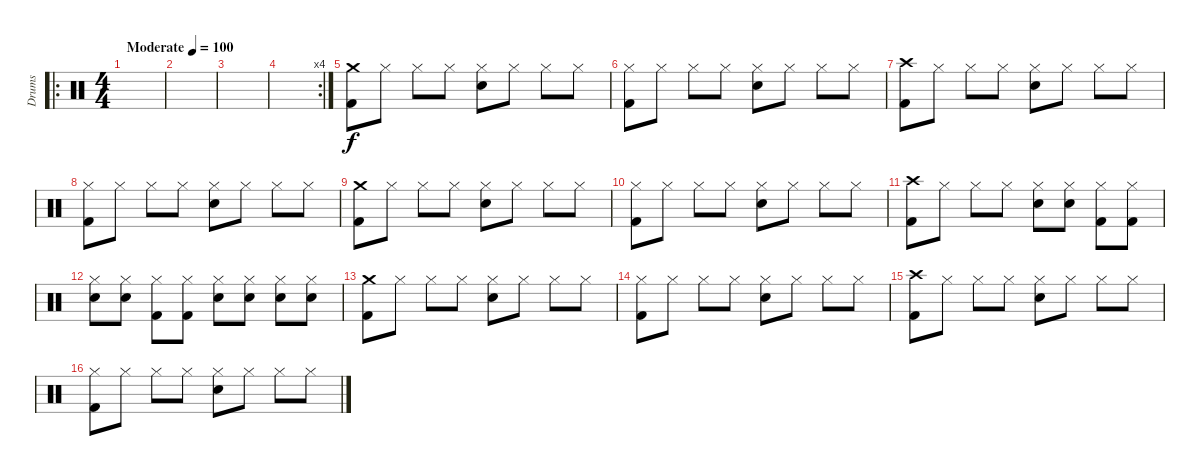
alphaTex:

\track ("Drums" "Drums") {instrument percussion}
\staff {score}
\articulation defaults
\ro
\ts (4 4)
\tempo (100 "Moderate")
\clef neutral
\ks c
|
|
|
\rc 4
|
("Crash medium (hit)" "Kick (hit) 2").8 "Hi-Hat (closed)".8 "Hi-Hat (closed)".8 "Hi-Hat (closed)".8 ("Hi-Hat (closed)" "Electric Snare (hit)").8 "Hi-Hat (closed)".8 "Hi-Hat (closed)".8 "Hi-Hat (closed)".8 |
("Hi-Hat (closed)" "Kick (hit) 2").8 "Hi-Hat (closed)".8 "Hi-Hat (closed)".8 "Hi-Hat (closed)".8 ("Hi-Hat (closed)" "Electric Snare (hit)").8 "Hi-Hat (closed)".8 "Hi-Hat (closed)".8 "Hi-Hat (closed)".8 |
("Crash high (hit)" "Kick (hit) 2").8 "Hi-Hat (closed)".8 "Hi-Hat (closed)".8 "Hi-Hat (closed)".8 ("Hi-Hat (closed)" "Electric Snare (hit)").8 "Hi-Hat (closed)".8 "Hi-Hat (closed)".8 "Hi-Hat (closed)".8 |
("Hi-Hat (closed)" "Kick (hit) 2").8 "Hi-Hat (closed)".8 "Hi-Hat (closed)".8 "Hi-Hat (closed)".8 ("Hi-Hat (closed)" "Electric Snare (hit)").8 "Hi-Hat (closed)".8 "Hi-Hat (closed)".8 "Hi-Hat (closed)".8 |
("Crash medium (hit)" "Kick (hit) 2").8 "Hi-Hat (closed)".8 "Hi-Hat (closed)".8 "Hi-Hat (closed)".8 ("Hi-Hat (closed)" "Electric Snare (hit)").8 "Hi-Hat (closed)".8 "Hi-Hat (closed)".8 "Hi-Hat (closed)".8 |
("Hi-Hat (closed)" "Kick (hit) 2").8 "Hi-Hat (closed)".8 "Hi-Hat (closed)".8 "Hi-Hat (closed)".8 ("Hi-Hat (closed)" "Electric Snare (hit)").8 "Hi-Hat (closed)".8 "Hi-Hat (closed)".8 "Hi-Hat (closed)".8 |
("Crash high (hit)" "Kick (hit) 2").8 "Hi-Hat (closed)".8 "Hi-Hat (closed)".8 "Hi-Hat (closed)".8 ("Hi-Hat (closed)" "Electric Snare (hit)").8 ("Hi-Hat (closed)" "Electric Snare (hit)").8 ("Hi-Hat (closed)" "Kick (hit) 2").8 ("Hi-Hat (closed)" "Kick (hit) 2").8 |
("Hi-Hat (closed)" "Electric Snare (hit)").8 ("Hi-Hat (closed)" "Electric Snare (hit)").8 ("Hi-Hat (closed)" "Kick (hit) 2").8 ("Hi-Hat (closed)" "Kick (hit) 2").8 ("Hi-Hat (closed)" "Electric Snare (hit)").8 ("Hi-Hat (closed)" "Electric Snare (hit)").8 ("Hi-Hat (closed)" "Electric Snare (hit)").8 ("Hi-Hat (closed)" "Electric Snare (hit)").8 |
("Crash medium (hit)" "Kick (hit) 2").8 "Hi-Hat (closed)".8 "Hi-Hat (closed)".8 "Hi-Hat (closed)".8 ("Hi-Hat (closed)" "Electric Snare (hit)").8 "Hi-Hat (closed)".8 "Hi-Hat (closed)".8 "Hi-Hat (closed)".8 |
("Hi-Hat (closed)" "Kick (hit) 2").8 "Hi-Hat (closed)".8 "Hi-Hat (closed)".8 "Hi-Hat (closed)".8 ("Hi-Hat (closed)" "Electric Snare (hit)").8 "Hi-Hat (closed)".8 "Hi-Hat (closed)".8 "Hi-Hat (closed)".8 |
("Crash high (hit)" "Kick (hit) 2").8 "Hi-Hat (closed)".8 "Hi-Hat (closed)".8 "Hi-Hat (closed)".8 ("Hi-Hat (closed)" "Electric Snare (hit)").8 "Hi-Hat (closed)".8 "Hi-Hat (closed)".8 "Hi-Hat (closed)".8 |
("Hi-Hat (closed)" "Kick (hit) 2").8 "Hi-Hat (closed)".8 "Hi-Hat (closed)".8 "Hi-Hat (closed)".8 ("Hi-Hat (closed)" "Electric Snare (hit)").8 "Hi-Hat (closed)".8 "Hi-Hat (closed)".8 "Hi-Hat (closed)".8
